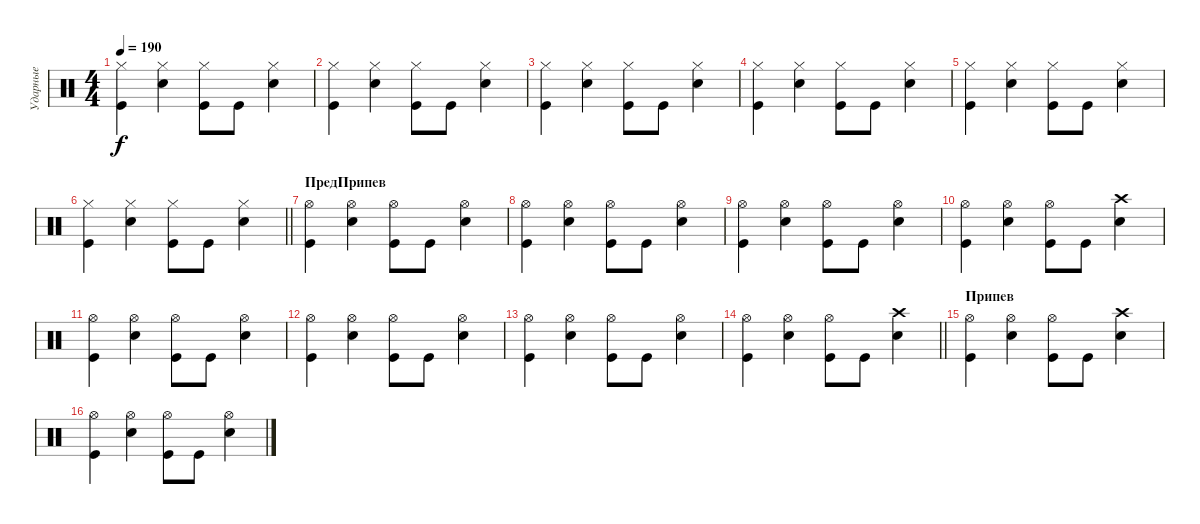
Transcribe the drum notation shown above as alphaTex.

\track ("Ударные" "Ударные") {instrument percussion}
\staff {score}
\articulation defaults
\ts (4 4)
\tempo 190
\clef neutral
\ks c
("Hi-Hat (closed)" "Kick (hit)").4{dy f} ("Hi-Hat (closed)" "Snare (hit) 2").4 ("Hi-Hat (closed)" "Kick (hit)").8 "Kick (hit)".8 ("Hi-Hat (closed)" "Snare (hit) 2").4 |
("Hi-Hat (closed)" "Kick (hit)").4 ("Hi-Hat (closed)" "Snare (hit) 2").4 ("Hi-Hat (closed)" "Kick (hit)").8 "Kick (hit)".8 ("Hi-Hat (closed)" "Snare (hit) 2").4 |
("Hi-Hat (closed)" "Kick (hit)").4 ("Hi-Hat (closed)" "Snare (hit) 2").4 ("Hi-Hat (closed)" "Kick (hit)").8 "Kick (hit)".8 ("Hi-Hat (closed)" "Snare (hit) 2").4 |
("Hi-Hat (closed)" "Kick (hit)").4 ("Hi-Hat (closed)" "Snare (hit) 2").4 ("Hi-Hat (closed)" "Kick (hit)").8 "Kick (hit)".8 ("Hi-Hat (closed)" "Snare (hit) 2").4 |
("Hi-Hat (closed)" "Kick (hit)").4 ("Hi-Hat (closed)" "Snare (hit) 2").4 ("Hi-Hat (closed)" "Kick (hit)").8 "Kick (hit)".8 ("Hi-Hat (closed)" "Snare (hit) 2").4 |
\barLineRight lightlight
("Hi-Hat (closed)" "Kick (hit)").4 ("Hi-Hat (closed)" "Snare (hit) 2").4 ("Hi-Hat (closed)" "Kick (hit)").8 "Kick (hit)".8 ("Hi-Hat (closed)" "Snare (hit) 2").4 |
\section ("" "ПредПрипев")
("Hi-Hat (open)" "Kick (hit)").4 ("Hi-Hat (open)" "Snare (hit) 2").4 ("Hi-Hat (open)" "Kick (hit)").8 "Kick (hit)".8 ("Hi-Hat (open)" "Snare (hit) 2").4 |
("Hi-Hat (open)" "Kick (hit)").4 ("Hi-Hat (open)" "Snare (hit) 2").4 ("Hi-Hat (open)" "Kick (hit)").8 "Kick (hit)".8 ("Hi-Hat (open)" "Snare (hit) 2").4 |
("Hi-Hat (open)" "Kick (hit)").4 ("Hi-Hat (open)" "Snare (hit) 2").4 ("Hi-Hat (open)" "Kick (hit)").8 "Kick (hit)".8 ("Hi-Hat (open)" "Snare (hit) 2").4 |
("Hi-Hat (open)" "Kick (hit)").4 ("Hi-Hat (open)" "Snare (hit) 2").4 ("Hi-Hat (open)" "Kick (hit)").8 "Kick (hit)".8 ("Crash high (hit)" "Snare (hit) 2").4 |
("Hi-Hat (open)" "Kick (hit)").4 ("Hi-Hat (open)" "Snare (hit) 2").4 ("Hi-Hat (open)" "Kick (hit)").8 "Kick (hit)".8 ("Hi-Hat (open)" "Snare (hit) 2").4 |
("Hi-Hat (open)" "Kick (hit)").4 ("Hi-Hat (open)" "Snare (hit) 2").4 ("Hi-Hat (open)" "Kick (hit)").8 "Kick (hit)".8 ("Hi-Hat (open)" "Snare (hit) 2").4 |
("Hi-Hat (open)" "Kick (hit)").4 ("Hi-Hat (open)" "Snare (hit) 2").4 ("Hi-Hat (open)" "Kick (hit)").8 "Kick (hit)".8 ("Hi-Hat (open)" "Snare (hit) 2").4 |
\barLineRight lightlight
("Hi-Hat (open)" "Kick (hit)").4 ("Hi-Hat (open)" "Snare (hit) 2").4 ("Hi-Hat (open)" "Kick (hit)").8 "Kick (hit)".8 ("Crash high (hit)" "Snare (hit) 2").4 |
\section ("" "Припев")
("Hi-Hat (open)" "Kick (hit)").4 ("Hi-Hat (open)" "Snare (hit) 2").4 ("Hi-Hat (open)" "Kick (hit)").8 "Kick (hit)".8 ("Crash high (hit)" "Snare (hit) 2").4 |
("Hi-Hat (open)" "Kick (hit)").4 ("Hi-Hat (open)" "Snare (hit) 2").4 ("Hi-Hat (open)" "Kick (hit)").8 "Kick (hit)".8 ("Hi-Hat (open)" "Snare (hit) 2").4
